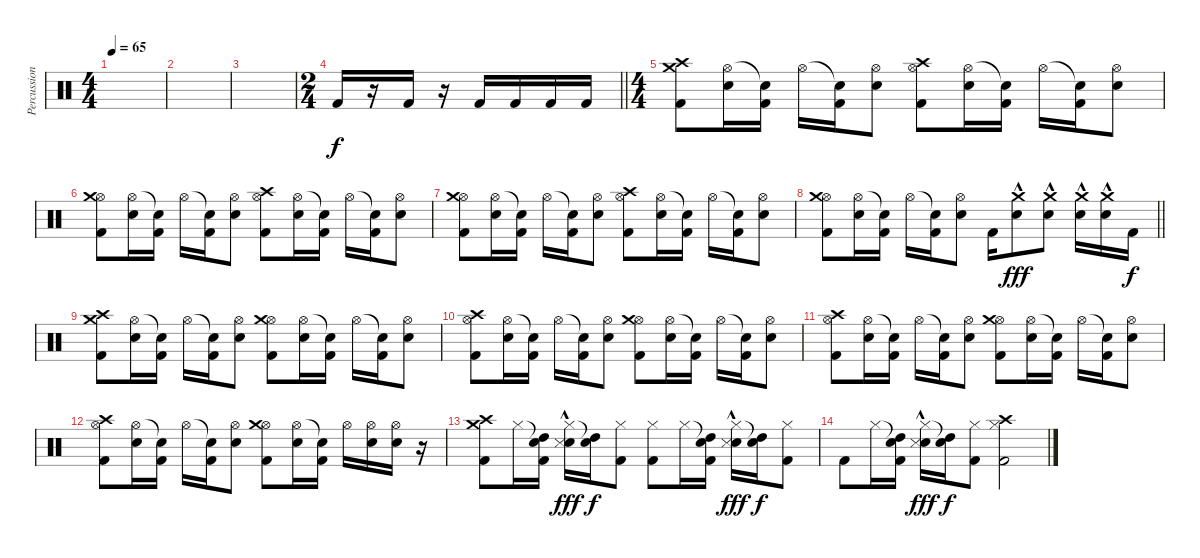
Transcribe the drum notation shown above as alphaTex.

\track ("Percussion 1" "Percussion") {instrument percussion}
\staff {score}
\articulation defaults
\ts (4 4)
\tempo 65
\clef neutral
\ks c
|
|
|
\ts (2 4)
\barLineRight lightlight "Kick (hit) 2".16
r.16 "Kick (hit) 2".16 r.16 "Kick (hit) 2".16 "Kick (hit) 2".16 "Kick (hit) 2".16 "Kick (hit) 2".16 |
\ts (4 4)
("Crash high (hit)" "Crash medium (hit)" "Kick (hit) 2").8 ("Hi-Hat (open)" "Electric Snare (hit)").16 ("Snare (hit)"{t} "Kick (hit) 2").16 "Hi-Hat (open)".16 ("Snare (hit)"{t} "Kick (hit) 2").16 ("Hi-Hat (open)" "Electric Snare (hit)").8 ("Hi-Hat (open)" "Crash high (hit)" "Kick (hit) 2").8 ("Hi-Hat (open)" "Electric Snare (hit)").16 ("Snare (hit)"{t} "Kick (hit) 2").16 "Hi-Hat (open)".16 ("Snare (hit)"{t} "Kick (hit) 2").16 ("Hi-Hat (open)" "Electric Snare (hit)").8 |
("Hi-Hat (open)" "Crash medium (hit)" "Kick (hit) 2").8 ("Hi-Hat (open)" "Electric Snare (hit)").16 ("Snare (hit)"{t} "Kick (hit) 2").16 "Hi-Hat (open)".16 ("Snare (hit)"{t} "Kick (hit) 2").16 ("Hi-Hat (open)" "Electric Snare (hit)").8 ("Hi-Hat (open)" "Crash high (hit)" "Kick (hit) 2").8 ("Hi-Hat (open)" "Electric Snare (hit)").16 ("Snare (hit)"{t} "Kick (hit) 2").16 "Hi-Hat (open)".16 ("Snare (hit)"{t} "Kick (hit) 2").16 ("Hi-Hat (open)" "Electric Snare (hit)").8 |
("Hi-Hat (open)" "Crash medium (hit)" "Kick (hit) 2").8 ("Hi-Hat (open)" "Electric Snare (hit)").16 ("Snare (hit)"{t} "Kick (hit) 2").16 "Hi-Hat (open)".16 ("Snare (hit)"{t} "Kick (hit) 2").16 ("Hi-Hat (open)" "Electric Snare (hit)").8 ("Hi-Hat (open)" "Crash high (hit)" "Kick (hit) 2").8 ("Hi-Hat (open)" "Electric Snare (hit)").16 ("Snare (hit)"{t} "Kick (hit) 2").16 "Hi-Hat (open)".16 ("Snare (hit)"{t} "Kick (hit) 2").16 ("Hi-Hat (open)" "Electric Snare (hit)").8 |
\barLineRight lightlight
("Hi-Hat (open)" "Crash medium (hit)" "Kick (hit) 2").8 ("Hi-Hat (open)" "Electric Snare (hit)").16 ("Snare (hit)"{t} "Kick (hit) 2").16 "Hi-Hat (open)".16 ("Snare (hit)"{t} "Kick (hit) 2").16 ("Hi-Hat (open)" "Electric Snare (hit)").8 "Kick (hit) 2".16 ("Electric Snare (hit)"{hac} "Crash medium (hit)").8{dy fff} ("Electric Snare (hit)"{hac} "Crash medium (hit)").8 ("Electric Snare (hit)"{hac} "Crash medium (hit)").16 ("Electric Snare (hit)"{hac} "Crash medium (hit)").16 "Kick (hit) 2".16{dy f} |
("Crash high (hit)" "Crash medium (hit)" "Kick (hit) 2").8 ("Hi-Hat (open)" "Electric Snare (hit)").16 ("Snare (hit)"{t} "Kick (hit) 2").16 "Hi-Hat (open)".16 ("Snare (hit)"{t} "Kick (hit) 2").16 ("Hi-Hat (open)" "Electric Snare (hit)").8 ("Hi-Hat (open)" "Crash medium (hit)" "Kick (hit) 2").8 ("Hi-Hat (open)" "Electric Snare (hit)").16 ("Snare (hit)"{t} "Kick (hit) 2").16 "Hi-Hat (open)".16 ("Snare (hit)"{t} "Kick (hit) 2").16 ("Hi-Hat (open)" "Electric Snare (hit)").8 |
("Hi-Hat (open)" "Crash high (hit)" "Kick (hit) 2").8 ("Hi-Hat (open)" "Electric Snare (hit)").16 ("Snare (hit)"{t} "Kick (hit) 2").16 "Hi-Hat (open)".16 ("Snare (hit)"{t} "Kick (hit) 2").16 ("Hi-Hat (open)" "Electric Snare (hit)").8 ("Hi-Hat (open)" "Crash medium (hit)" "Kick (hit) 2").8 ("Hi-Hat (open)" "Electric Snare (hit)").16 ("Snare (hit)"{t} "Kick (hit) 2").16 "Hi-Hat (open)".16 ("Snare (hit)"{t} "Kick (hit) 2").16 ("Hi-Hat (open)" "Electric Snare (hit)").8 |
("Hi-Hat (open)" "Crash high (hit)" "Kick (hit) 2").8 ("Hi-Hat (open)" "Electric Snare (hit)").16 ("Snare (hit)"{t} "Kick (hit) 2").16 "Hi-Hat (open)".16 ("Snare (hit)"{t} "Kick (hit) 2").16 ("Hi-Hat (open)" "Electric Snare (hit)").8 ("Hi-Hat (open)" "Crash medium (hit)" "Kick (hit) 2").8 ("Hi-Hat (open)" "Electric Snare (hit)").16 ("Snare (hit)"{t} "Kick (hit) 2").16 "Hi-Hat (open)".16 ("Snare (hit)"{t} "Kick (hit) 2").16 ("Hi-Hat (open)" "Electric Snare (hit)").8 |
("Hi-Hat (open)" "Crash high (hit)" "Kick (hit) 2").8 ("Hi-Hat (open)" "Electric Snare (hit)").16 ("Snare (hit)"{t} "Kick (hit) 2").16 "Hi-Hat (open)".16 ("Snare (hit)"{t} "Kick (hit) 2").16 ("Hi-Hat (open)" "Electric Snare (hit)").8 ("Hi-Hat (open)" "Crash medium (hit)" "Kick (hit) 2").8 ("Hi-Hat (open)" "Electric Snare (hit)").16 ("Snare (hit)"{t} "Kick (hit) 2").16 "Hi-Hat (open)".16 ("Hi-Hat (open)" "Electric Snare (hit)").16 ("Hi-Hat (open)" "Electric Snare (hit)").16 r.16 |
("Crash high (hit)" "Crash medium (hit)" "Kick (hit) 2").8 "Hi-Hat (closed)".16 ("Snare (hit)"{t} "High Tom (hit)" "Kick (hit) 2").16 ("Hi-Hat (closed)" "Electric Snare (hit)" "Metronome (hit)"{hac}).16{dy fff} ("Snare (hit)"{t} "High Tom (hit)").16{dy f} ("Hi-Hat (closed)" "Kick (hit) 2").8 ("Hi-Hat (closed)" "Kick (hit) 2").8 "Hi-Hat (closed)".16 ("Snare (hit)"{t} "High Tom (hit)" "Kick (hit) 2").16 ("Hi-Hat (closed)" "Electric Snare (hit)" "Metronome (hit)"{hac}).16{dy fff} ("Snare (hit)"{t} "High Tom (hit)").16{dy f} ("Hi-Hat (closed)" "Kick (hit) 2").8 |
"Kick (hit) 2".8 "Hi-Hat (closed)".16 ("Snare (hit)"{t} "High Tom (hit)" "Kick (hit) 2").16 ("Hi-Hat (closed)" "Electric Snare (hit)" "Metronome (hit)"{hac}).16{dy fff} ("Snare (hit)"{t} "High Tom (hit)").16{dy f} ("Hi-Hat (closed)" "Kick (hit) 2").8 ("Hi-Hat (closed)" "Crash high (hit)" "Kick (hit) 2").2
